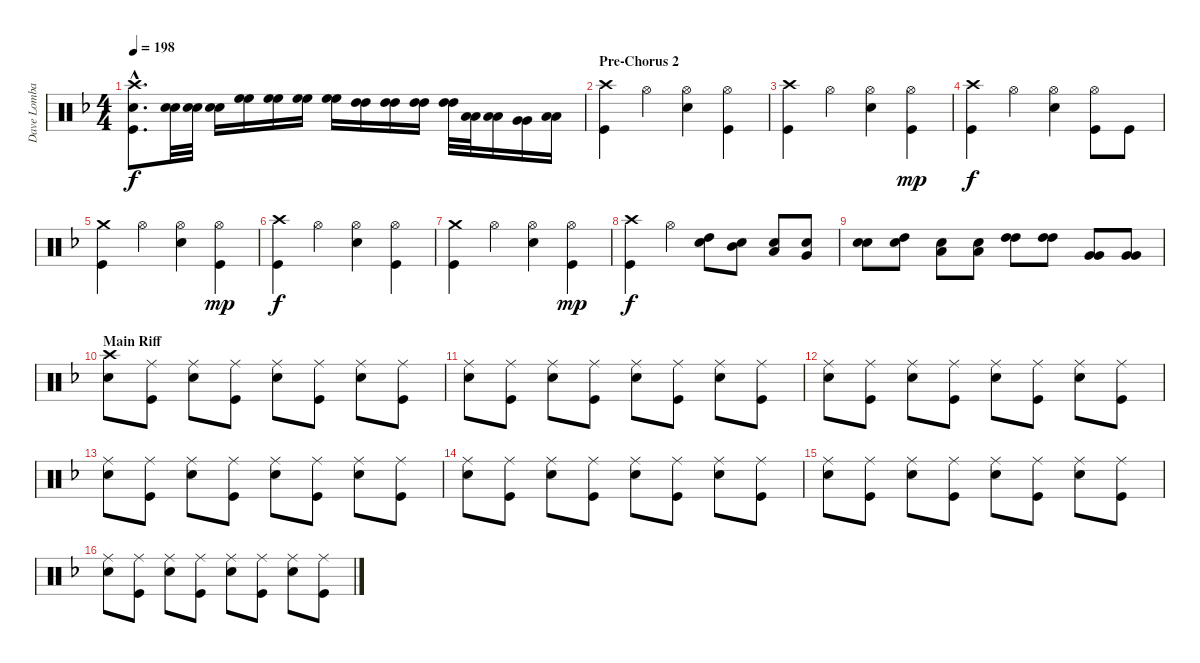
\track ("Dave Lombardo - Drums" "Dave Lomba") {instrument percussion}
\staff {score}
\articulation defaults
\ts (4 4)
\tempo 198
\clef neutral
\ks f
("Crash high (hit)"{hac} "Snare (hit) 2"{hac} "Kick (hit)"{hac}).8{d dy f} ("Snare (hit) 2" "Snare (hit) 2").32 ("Snare (hit) 2" "Snare (hit) 2").32 ("Snare (hit) 2" "Snare (hit) 2").16 ("High Floor Tom (hit)" "High Floor Tom (hit)").16 ("High Floor Tom (hit)" "High Floor Tom (hit)").16 ("High Floor Tom (hit)" "High Floor Tom (hit)").16 ("High Floor Tom (hit)" "High Floor Tom (hit)").16 ("High Tom (hit)" "High Tom (hit)").16 ("High Tom (hit)" "High Tom (hit)").16 ("High Tom (hit)" "High Tom (hit)").16 ("High Tom (hit)" "High Tom (hit)").32 ("Low Tom (hit)" "Low Tom (hit)").32 ("Low Tom (hit)" "Low Tom (hit)").16 ("Very Low Tom (hit)" "Very Low Tom (hit)").16 ("Low Floor Tom (hit)" "Low Floor Tom (hit)").16 |
\section ("" "Pre-Chorus 2")
("Crash high (hit)" "Kick (hit)").4 "Hi-Hat (open)".4 ("Snare (hit) 2" "Hi-Hat (open)").4 ("Hi-Hat (open)" "Kick (hit)").4 |
("Crash high (hit)" "Kick (hit)").4 "Hi-Hat (open)".4 ("Snare (hit) 2" "Hi-Hat (open)").4 ("Hi-Hat (open)" "Kick (hit)").4{dy mp} |
("Crash high (hit)" "Kick (hit)").4{dy f} "Hi-Hat (open)".4 ("Snare (hit) 2" "Hi-Hat (open)").4 ("Hi-Hat (open)" "Kick (hit)").8 "Kick (hit)".8 |
("Crash medium (hit)" "Kick (hit)").4 "Hi-Hat (open)".4 ("Snare (hit) 2" "Hi-Hat (open)").4 ("Hi-Hat (open)" "Kick (hit)").4{dy mp} |
("Crash high (hit)" "Kick (hit)").4{dy f} "Hi-Hat (open)".4 ("Snare (hit) 2" "Hi-Hat (open)").4 ("Hi-Hat (open)" "Kick (hit)").4 |
("Crash medium (hit)" "Kick (hit)").4 "Hi-Hat (open)".4 ("Snare (hit) 2" "Hi-Hat (open)").4 ("Hi-Hat (open)" "Kick (hit)").4{dy mp} |
("Crash high (hit)" "Kick (hit)").4{dy f} "Hi-Hat (open)".4 ("Snare (hit) 2" "High Tom (hit)").8 ("Snare (hit) 2" "Mid Tom (hit)").8 ("Snare (hit) 2" "Low Tom (hit)").8 ("Snare (hit) 2" "Very Low Tom (hit)").8 |
("Snare (hit) 2" "Snare (hit) 2").8 ("Snare (hit) 2" "High Tom (hit)").8 ("Snare (hit) 2" "Low Tom (hit)").8 ("Snare (hit) 2" "Low Tom (hit)").8 ("High Tom (hit)" "High Tom (hit)").8 ("High Tom (hit)" "High Tom (hit)").8 ("Very Low Tom (hit)" "Very Low Tom (hit)").8 ("Very Low Tom (hit)" "Very Low Tom (hit)").8 |
\section ("" "Main Riff")
("Crash high (hit)" "Snare (hit) 2").8 ("Ride (middle)" "Kick (hit)").8 ("Ride (middle)" "Snare (hit) 2").8 ("Ride (middle)" "Kick (hit)").8 ("Ride (middle)" "Snare (hit) 2").8 ("Ride (middle)" "Kick (hit)").8 ("Ride (middle)" "Snare (hit) 2").8 ("Ride (middle)" "Kick (hit)").8 |
("Ride (middle)" "Snare (hit) 2").8 ("Ride (middle)" "Kick (hit)").8 ("Ride (middle)" "Snare (hit) 2").8 ("Ride (middle)" "Kick (hit)").8 ("Ride (middle)" "Snare (hit) 2").8 ("Ride (middle)" "Kick (hit)").8 ("Ride (middle)" "Snare (hit) 2").8 ("Ride (middle)" "Kick (hit)").8 |
("Ride (middle)" "Snare (hit) 2").8 ("Ride (middle)" "Kick (hit)").8 ("Ride (middle)" "Snare (hit) 2").8 ("Ride (middle)" "Kick (hit)").8 ("Ride (middle)" "Snare (hit) 2").8 ("Ride (middle)" "Kick (hit)").8 ("Ride (middle)" "Snare (hit) 2").8 ("Ride (middle)" "Kick (hit)").8 |
("Ride (middle)" "Snare (hit) 2").8 ("Ride (middle)" "Kick (hit)").8 ("Ride (middle)" "Snare (hit) 2").8 ("Ride (middle)" "Kick (hit)").8 ("Ride (middle)" "Snare (hit) 2").8 ("Ride (middle)" "Kick (hit)").8 ("Ride (middle)" "Snare (hit) 2").8 ("Ride (middle)" "Kick (hit)").8 |
("Ride (middle)" "Snare (hit) 2").8 ("Ride (middle)" "Kick (hit)").8 ("Ride (middle)" "Snare (hit) 2").8 ("Ride (middle)" "Kick (hit)").8 ("Ride (middle)" "Snare (hit) 2").8 ("Ride (middle)" "Kick (hit)").8 ("Ride (middle)" "Snare (hit) 2").8 ("Ride (middle)" "Kick (hit)").8 |
("Ride (middle)" "Snare (hit) 2").8 ("Ride (middle)" "Kick (hit)").8 ("Ride (middle)" "Snare (hit) 2").8 ("Ride (middle)" "Kick (hit)").8 ("Ride (middle)" "Snare (hit) 2").8 ("Ride (middle)" "Kick (hit)").8 ("Ride (middle)" "Snare (hit) 2").8 ("Ride (middle)" "Kick (hit)").8 |
("Ride (middle)" "Snare (hit) 2").8 ("Ride (middle)" "Kick (hit)").8 ("Ride (middle)" "Snare (hit) 2").8 ("Ride (middle)" "Kick (hit)").8 ("Ride (middle)" "Snare (hit) 2").8 ("Ride (middle)" "Kick (hit)").8 ("Ride (middle)" "Snare (hit) 2").8 ("Ride (middle)" "Kick (hit)").8
